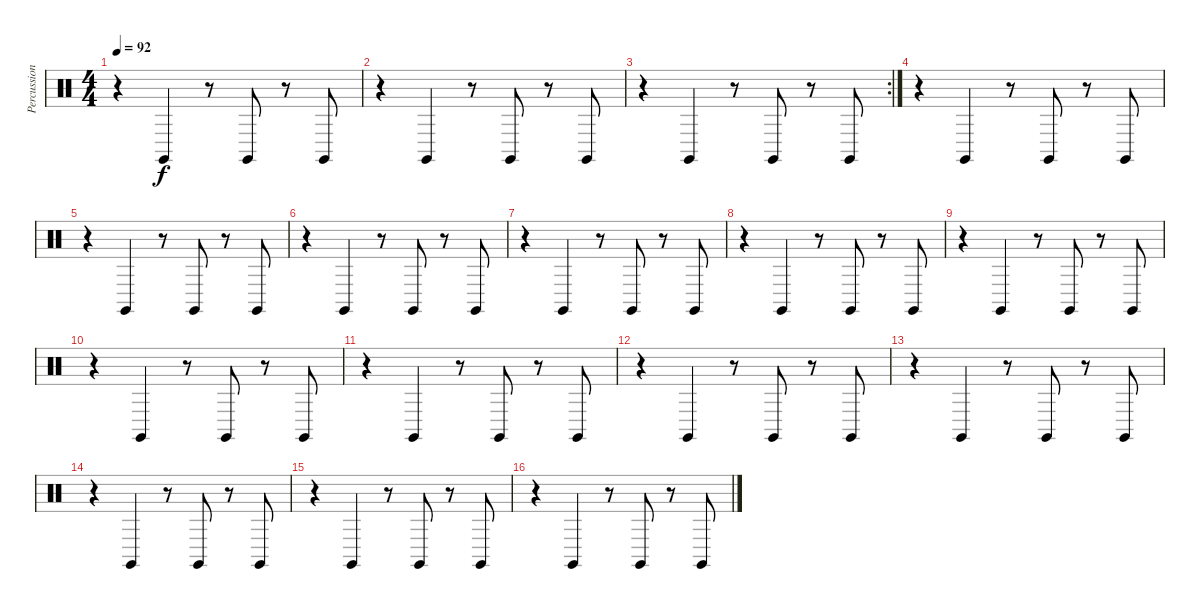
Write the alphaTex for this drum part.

\track ("Percussion" "Percussion") {instrument percussion}
\staff {score}
\articulation defaults
\ts (4 4)
\tempo 92
\clef neutral
\ks c
r.4{dy f} "Claves (hit)".4 r.8 "Claves (hit)".8 r.8 "Claves (hit)".8 |
r.4 "Claves (hit)".4 r.8 "Claves (hit)".8 r.8 "Claves (hit)".8 |
\rc 2
r.4 "Claves (hit)".4 r.8 "Claves (hit)".8 r.8 "Claves (hit)".8 |
r.4 "Claves (hit)".4 r.8 "Claves (hit)".8 r.8 "Claves (hit)".8 |
r.4 "Claves (hit)".4 r.8 "Claves (hit)".8 r.8 "Claves (hit)".8 |
r.4 "Claves (hit)".4 r.8 "Claves (hit)".8 r.8 "Claves (hit)".8 |
r.4 "Claves (hit)".4 r.8 "Claves (hit)".8 r.8 "Claves (hit)".8 |
r.4 "Claves (hit)".4 r.8 "Claves (hit)".8 r.8 "Claves (hit)".8 |
r.4 "Claves (hit)".4 r.8 "Claves (hit)".8 r.8 "Claves (hit)".8 |
r.4 "Claves (hit)".4 r.8 "Claves (hit)".8 r.8 "Claves (hit)".8 |
r.4 "Claves (hit)".4 r.8 "Claves (hit)".8 r.8 "Claves (hit)".8 |
r.4 "Claves (hit)".4 r.8 "Claves (hit)".8 r.8 "Claves (hit)".8 |
r.4 "Claves (hit)".4 r.8 "Claves (hit)".8 r.8 "Claves (hit)".8 |
r.4 "Claves (hit)".4 r.8 "Claves (hit)".8 r.8 "Claves (hit)".8 |
r.4 "Claves (hit)".4 r.8 "Claves (hit)".8 r.8 "Claves (hit)".8 |
r.4 "Claves (hit)".4 r.8 "Claves (hit)".8 r.8 "Claves (hit)".8
